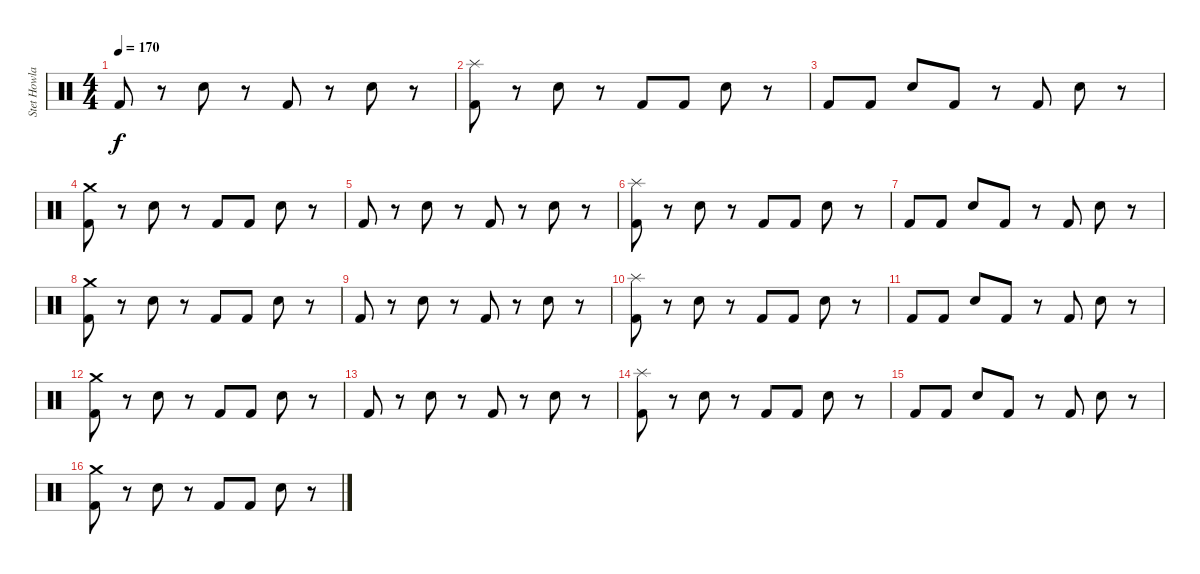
\track ("Stet Howland" "Stet Howla") {instrument percussion}
\staff {score}
\articulation defaults
\ts (4 4)
\tempo 170
\clef neutral
\ks c "Kick (hit) 2".8{dy f}
r.8 "Electric Snare (hit)".8 r.8 "Kick (hit) 2".8 r.8 "Electric Snare (hit)".8 r.8 |
("Splash (hit)" "Kick (hit) 2").8 r.8 "Electric Snare (hit)".8 r.8 "Kick (hit) 2".8 "Kick (hit) 2".8 "Electric Snare (hit)".8 r.8 |
"Kick (hit) 2".8 "Kick (hit) 2".8 "Electric Snare (hit)".8 "Kick (hit) 2".8 r.8 "Kick (hit) 2".8 "Electric Snare (hit)".8 r.8 |
("Crash medium (hit)" "Kick (hit) 2").8 r.8 "Electric Snare (hit)".8 r.8 "Kick (hit) 2".8 "Kick (hit) 2".8 "Electric Snare (hit)".8 r.8 |
"Kick (hit) 2".8 r.8 "Electric Snare (hit)".8 r.8 "Kick (hit) 2".8 r.8 "Electric Snare (hit)".8 r.8 |
("Splash (hit)" "Kick (hit) 2").8 r.8 "Electric Snare (hit)".8 r.8 "Kick (hit) 2".8 "Kick (hit) 2".8 "Electric Snare (hit)".8 r.8 |
"Kick (hit) 2".8 "Kick (hit) 2".8 "Electric Snare (hit)".8 "Kick (hit) 2".8 r.8 "Kick (hit) 2".8 "Electric Snare (hit)".8 r.8 |
("Crash medium (hit)" "Kick (hit) 2").8 r.8 "Electric Snare (hit)".8 r.8 "Kick (hit) 2".8 "Kick (hit) 2".8 "Electric Snare (hit)".8 r.8 |
"Kick (hit) 2".8 r.8 "Electric Snare (hit)".8 r.8 "Kick (hit) 2".8 r.8 "Electric Snare (hit)".8 r.8 |
("Splash (hit)" "Kick (hit) 2").8 r.8 "Electric Snare (hit)".8 r.8 "Kick (hit) 2".8 "Kick (hit) 2".8 "Electric Snare (hit)".8 r.8 |
"Kick (hit) 2".8 "Kick (hit) 2".8 "Electric Snare (hit)".8 "Kick (hit) 2".8 r.8 "Kick (hit) 2".8 "Electric Snare (hit)".8 r.8 |
("Crash medium (hit)" "Kick (hit) 2").8 r.8 "Electric Snare (hit)".8 r.8 "Kick (hit) 2".8 "Kick (hit) 2".8 "Electric Snare (hit)".8 r.8 |
"Kick (hit) 2".8 r.8 "Electric Snare (hit)".8 r.8 "Kick (hit) 2".8 r.8 "Electric Snare (hit)".8 r.8 |
("Splash (hit)" "Kick (hit) 2").8 r.8 "Electric Snare (hit)".8 r.8 "Kick (hit) 2".8 "Kick (hit) 2".8 "Electric Snare (hit)".8 r.8 |
"Kick (hit) 2".8 "Kick (hit) 2".8 "Electric Snare (hit)".8 "Kick (hit) 2".8 r.8 "Kick (hit) 2".8 "Electric Snare (hit)".8 r.8 |
("Crash medium (hit)" "Kick (hit) 2").8 r.8 "Electric Snare (hit)".8 r.8 "Kick (hit) 2".8 "Kick (hit) 2".8 "Electric Snare (hit)".8 r.8
